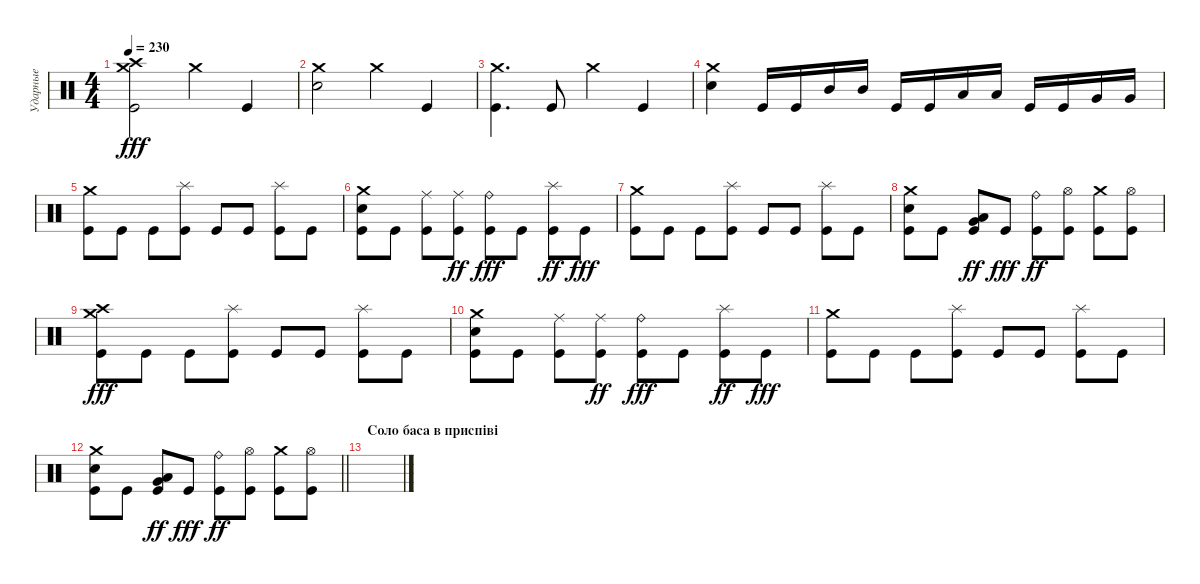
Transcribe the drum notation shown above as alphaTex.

\track ("Ударные" "Ударные") {instrument percussion}
\staff {score}
\articulation defaults
\ts (4 4)
\tempo 230
\clef neutral
\ks c
("Crash medium (hit)" "Crash high (hit)" "Kick (hit)").2{dy fff} "Crash medium (hit)".4 "Kick (hit)".4 |
("Electric Snare (hit)" "Crash medium (hit)").2 "Crash medium (hit)".4 "Kick (hit)".4 |
("Crash medium (hit)" "Kick (hit)").4{d} "Kick (hit)".8 "Crash medium (hit)".4 "Kick (hit)".4 |
("Electric Snare (hit)" "Crash medium (hit)").4 "Kick (hit)".16 "Kick (hit)".16 "Mid Tom (hit)".16 "Mid Tom (hit)".16 "Kick (hit)".16 "Kick (hit)".16 "Low Tom (hit)".16 "Low Tom (hit)".16 "Kick (hit)".16 "Kick (hit)".16 "Very Low Tom (hit)".16 "Very Low Tom (hit)".16 |
("Kick (hit)" "Crash medium (hit)").8 "Kick (hit)".8 "Kick (hit)".8 ("Kick (hit)" "Splash (hit)").8 "Kick (hit)".8 "Kick (hit)".8 ("Kick (hit)" "Splash (hit)").8 "Kick (hit)".8 |
("Kick (hit)" "Electric Snare (hit)" "Crash medium (hit)").8 "Kick (hit)".8 ("Kick (hit)" "Ride (middle)").8 ("Kick (hit)" "Ride (middle)").8{dy ff} ("Kick (hit)" "Ride (bell)").8{dy fff} "Kick (hit)".8 ("Kick (hit)" "Splash (hit)").8{dy ff} "Kick (hit)".8{dy fff} |
("Kick (hit)" "Crash medium (hit)").8 "Kick (hit)".8 "Kick (hit)".8 ("Kick (hit)" "Splash (hit)").8 "Kick (hit)".8 "Kick (hit)".8 ("Kick (hit)" "Splash (hit)").8 "Kick (hit)".8 |
("Kick (hit)" "Electric Snare (hit)" "Crash medium (hit)").8 "Kick (hit)".8 ("Kick (hit)" "Very Low Tom (hit)" "Low Tom (hit)").8{dy ff} "Kick (hit)".8{dy fff} ("Kick (hit)" "Ride (bell)").8{dy ff} ("Kick (hit)" "Hi-Hat (open)").8 ("Kick (hit)" "Crash medium (hit)").8 ("Kick (hit)" "Hi-Hat (open)").8 |
("Kick (hit)" "Crash high (hit)" "Crash medium (hit)").8{dy fff} "Kick (hit)".8 "Kick (hit)".8 ("Kick (hit)" "Splash (hit)").8 "Kick (hit)".8 "Kick (hit)".8 ("Kick (hit)" "Splash (hit)").8 "Kick (hit)".8 |
("Kick (hit)" "Electric Snare (hit)" "Crash medium (hit)").8 "Kick (hit)".8 ("Kick (hit)" "Ride (middle)").8 ("Kick (hit)" "Ride (middle)").8{dy ff} ("Kick (hit)" "Ride (bell)").8{dy fff} "Kick (hit)".8 ("Kick (hit)" "Splash (hit)").8{dy ff} "Kick (hit)".8{dy fff} |
("Kick (hit)" "Crash medium (hit)").8 "Kick (hit)".8 "Kick (hit)".8 ("Kick (hit)" "Splash (hit)").8 "Kick (hit)".8 "Kick (hit)".8 ("Kick (hit)" "Splash (hit)").8 "Kick (hit)".8 |
\barLineRight lightlight
("Kick (hit)" "Electric Snare (hit)" "Crash medium (hit)").8 "Kick (hit)".8 ("Kick (hit)" "Very Low Tom (hit)" "Low Tom (hit)").8{dy ff} "Kick (hit)".8{dy fff} ("Kick (hit)" "Ride (bell)").8{dy ff} ("Kick (hit)" "Hi-Hat (open)").8 ("Kick (hit)" "Crash medium (hit)").8 ("Kick (hit)" "Hi-Hat (open)").8 |
\section ("" "Соло баса в приспіві")
